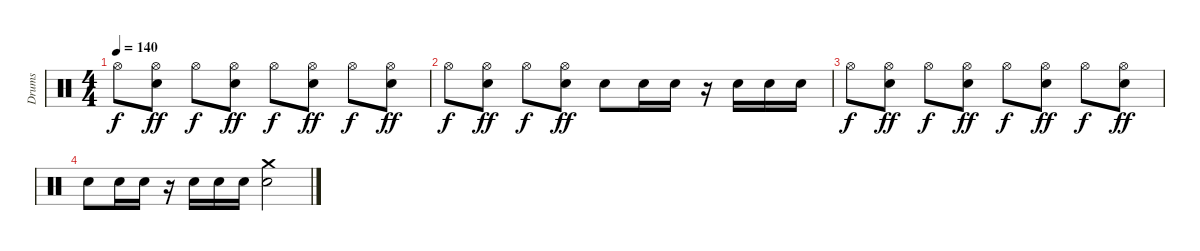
\track ("Drums" "Drums") {instrument percussion}
\staff {score}
\articulation defaults
\ts (4 4)
\tempo 140
\clef neutral
\ks c "Hi-Hat (open)".8{dy f}
("Hi-Hat (open)" "Electric Snare (hit)").8{dy ff} "Hi-Hat (open)".8{dy f} ("Hi-Hat (open)" "Electric Snare (hit)").8{dy ff} "Hi-Hat (open)".8{dy f} ("Hi-Hat (open)" "Electric Snare (hit)").8{dy ff} "Hi-Hat (open)".8{dy f} ("Hi-Hat (open)" "Electric Snare (hit)").8{dy ff} |
"Hi-Hat (open)".8{dy f} ("Hi-Hat (open)" "Electric Snare (hit)").8{dy ff} "Hi-Hat (open)".8{dy f} ("Hi-Hat (open)" "Electric Snare (hit)").8{dy ff} "Electric Snare (hit)".8 "Electric Snare (hit)".16 "Electric Snare (hit)".16 r.16 "Electric Snare (hit)".16 "Electric Snare (hit)".16 "Electric Snare (hit)".16 |
"Hi-Hat (open)".8{dy f} ("Hi-Hat (open)" "Electric Snare (hit)").8{dy ff} "Hi-Hat (open)".8{dy f} ("Hi-Hat (open)" "Electric Snare (hit)").8{dy ff} "Hi-Hat (open)".8{dy f} ("Hi-Hat (open)" "Electric Snare (hit)").8{dy ff} "Hi-Hat (open)".8{dy f} ("Hi-Hat (open)" "Electric Snare (hit)").8{dy ff} |
"Electric Snare (hit)".8 "Electric Snare (hit)".16 "Electric Snare (hit)".16 r.16 "Electric Snare (hit)".16 "Electric Snare (hit)".16 "Electric Snare (hit)".16 ("Crash medium (hit)" "Electric Snare (hit)").2
